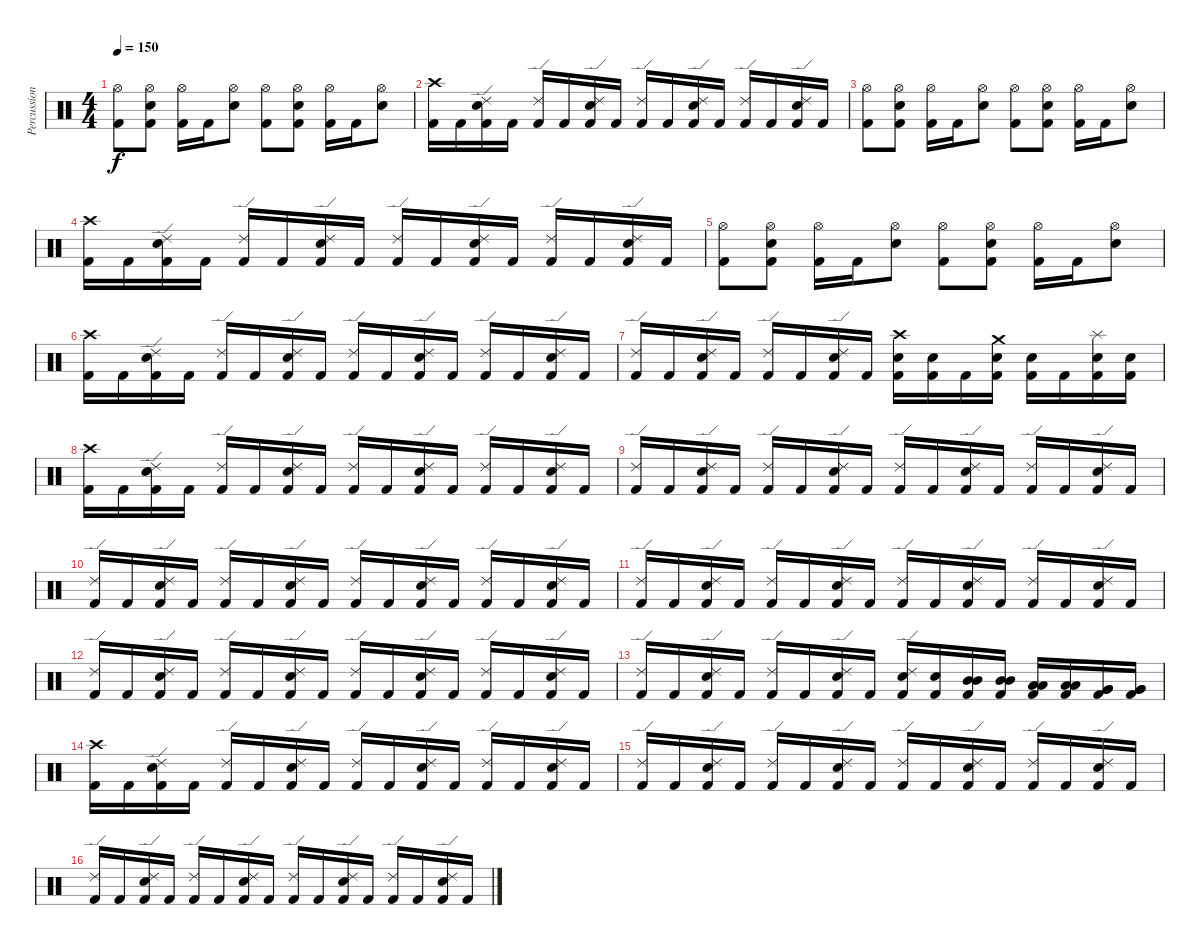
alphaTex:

\track ("Percussion" "Percussion") {instrument percussion}
\staff {score}
\articulation defaults
\ts (4 4)
\tempo 150
\clef neutral
\ks c
("Kick (hit) 2" "Hi-Hat (open)").8{dy f} ("Kick (hit) 2" "Snare (hit) 2" "Hi-Hat (open)").8 ("Kick (hit) 2" "Hi-Hat (open)").16 "Kick (hit) 2".16 ("Snare (hit) 2" "Hi-Hat (open)").8 ("Kick (hit) 2" "Hi-Hat (open)").8 ("Kick (hit) 2" "Snare (hit) 2" "Hi-Hat (open)").8 ("Kick (hit) 2" "Hi-Hat (open)").16 "Kick (hit) 2".16 ("Snare (hit) 2" "Hi-Hat (open)").8 |
("Kick (hit) 2" "Crash high (hit)").16 "Kick (hit) 2".16 ("Kick (hit) 2" "Snare (hit) 2" "Ride (edge) 2").16 "Kick (hit) 2".16 ("Kick (hit) 2" "Ride (edge) 2").16 "Kick (hit) 2".16 ("Kick (hit) 2" "Snare (hit) 2" "Ride (edge) 2").16 "Kick (hit) 2".16 ("Kick (hit) 2" "Ride (edge) 2").16 "Kick (hit) 2".16 ("Kick (hit) 2" "Snare (hit) 2" "Ride (edge) 2").16 "Kick (hit) 2".16 ("Kick (hit) 2" "Ride (edge) 2").16 "Kick (hit) 2".16 ("Kick (hit) 2" "Snare (hit) 2" "Ride (edge) 2").16 "Kick (hit) 2".16 |
("Kick (hit) 2" "Hi-Hat (open)").8 ("Kick (hit) 2" "Snare (hit) 2" "Hi-Hat (open)").8 ("Kick (hit) 2" "Hi-Hat (open)").16 "Kick (hit) 2".16 ("Snare (hit) 2" "Hi-Hat (open)").8 ("Kick (hit) 2" "Hi-Hat (open)").8 ("Kick (hit) 2" "Snare (hit) 2" "Hi-Hat (open)").8 ("Kick (hit) 2" "Hi-Hat (open)").16 "Kick (hit) 2".16 ("Snare (hit) 2" "Hi-Hat (open)").8 |
("Kick (hit) 2" "Crash high (hit)").16 "Kick (hit) 2".16 ("Kick (hit) 2" "Snare (hit) 2" "Ride (edge) 2").16 "Kick (hit) 2".16 ("Kick (hit) 2" "Ride (edge) 2").16 "Kick (hit) 2".16 ("Kick (hit) 2" "Snare (hit) 2" "Ride (edge) 2").16 "Kick (hit) 2".16 ("Kick (hit) 2" "Ride (edge) 2").16 "Kick (hit) 2".16 ("Kick (hit) 2" "Snare (hit) 2" "Ride (edge) 2").16 "Kick (hit) 2".16 ("Kick (hit) 2" "Ride (edge) 2").16 "Kick (hit) 2".16 ("Kick (hit) 2" "Snare (hit) 2" "Ride (edge) 2").16 "Kick (hit) 2".16 |
("Kick (hit) 2" "Hi-Hat (open)").8 ("Kick (hit) 2" "Snare (hit) 2" "Hi-Hat (open)").8 ("Kick (hit) 2" "Hi-Hat (open)").16 "Kick (hit) 2".16 ("Snare (hit) 2" "Hi-Hat (open)").8 ("Kick (hit) 2" "Hi-Hat (open)").8 ("Kick (hit) 2" "Snare (hit) 2" "Hi-Hat (open)").8 ("Kick (hit) 2" "Hi-Hat (open)").16 "Kick (hit) 2".16 ("Snare (hit) 2" "Hi-Hat (open)").8 |
("Kick (hit) 2" "Crash high (hit)").16 "Kick (hit) 2".16 ("Kick (hit) 2" "Snare (hit) 2" "Ride (edge) 2").16 "Kick (hit) 2".16 ("Kick (hit) 2" "Ride (edge) 2").16 "Kick (hit) 2".16 ("Kick (hit) 2" "Snare (hit) 2" "Ride (edge) 2").16 "Kick (hit) 2".16 ("Kick (hit) 2" "Ride (edge) 2").16 "Kick (hit) 2".16 ("Kick (hit) 2" "Snare (hit) 2" "Ride (edge) 2").16 "Kick (hit) 2".16 ("Kick (hit) 2" "Ride (edge) 2").16 "Kick (hit) 2".16 ("Kick (hit) 2" "Snare (hit) 2" "Ride (edge) 2").16 "Kick (hit) 2".16 |
("Kick (hit) 2" "Ride (edge) 2").16 "Kick (hit) 2".16 ("Kick (hit) 2" "Snare (hit) 2" "Ride (edge) 2").16 "Kick (hit) 2".16 ("Kick (hit) 2" "Ride (edge) 2").16 "Kick (hit) 2".16 ("Kick (hit) 2" "Snare (hit) 2" "Ride (edge) 2").16 "Kick (hit) 2".16 ("Kick (hit) 2" "Snare (hit) 2" "Crash high (hit)").16 ("Kick (hit) 2" "Snare (hit) 2").16 "Kick (hit) 2".16 ("Kick (hit) 2" "Snare (hit) 2" "Crash medium (hit)").16 ("Kick (hit) 2" "Snare (hit) 2").16 "Kick (hit) 2".16 ("Kick (hit) 2" "Snare (hit) 2" "Splash (hit)").16 ("Kick (hit) 2" "Snare (hit) 2").16 |
("Kick (hit) 2" "Crash high (hit)").16 "Kick (hit) 2".16 ("Kick (hit) 2" "Snare (hit) 2" "Ride (edge) 2").16 "Kick (hit) 2".16 ("Kick (hit) 2" "Ride (edge) 2").16 "Kick (hit) 2".16 ("Kick (hit) 2" "Snare (hit) 2" "Ride (edge) 2").16 "Kick (hit) 2".16 ("Kick (hit) 2" "Ride (edge) 2").16 "Kick (hit) 2".16 ("Kick (hit) 2" "Snare (hit) 2" "Ride (edge) 2").16 "Kick (hit) 2".16 ("Kick (hit) 2" "Ride (edge) 2").16 "Kick (hit) 2".16 ("Kick (hit) 2" "Snare (hit) 2" "Ride (edge) 2").16 "Kick (hit) 2".16 |
("Kick (hit) 2" "Ride (edge) 2").16 "Kick (hit) 2".16 ("Kick (hit) 2" "Snare (hit) 2" "Ride (edge) 2").16 "Kick (hit) 2".16 ("Kick (hit) 2" "Ride (edge) 2").16 "Kick (hit) 2".16 ("Kick (hit) 2" "Snare (hit) 2" "Ride (edge) 2").16 "Kick (hit) 2".16 ("Kick (hit) 2" "Ride (edge) 2").16 "Kick (hit) 2".16 ("Kick (hit) 2" "Snare (hit) 2" "Ride (edge) 2").16 "Kick (hit) 2".16 ("Kick (hit) 2" "Ride (edge) 2").16 "Kick (hit) 2".16 ("Kick (hit) 2" "Snare (hit) 2" "Ride (edge) 2").16 "Kick (hit) 2".16 |
("Kick (hit) 2" "Ride (edge) 2").16 "Kick (hit) 2".16 ("Kick (hit) 2" "Snare (hit) 2" "Ride (edge) 2").16 "Kick (hit) 2".16 ("Kick (hit) 2" "Ride (edge) 2").16 "Kick (hit) 2".16 ("Kick (hit) 2" "Snare (hit) 2" "Ride (edge) 2").16 "Kick (hit) 2".16 ("Kick (hit) 2" "Ride (edge) 2").16 "Kick (hit) 2".16 ("Kick (hit) 2" "Snare (hit) 2" "Ride (edge) 2").16 "Kick (hit) 2".16 ("Kick (hit) 2" "Ride (edge) 2").16 "Kick (hit) 2".16 ("Kick (hit) 2" "Snare (hit) 2" "Ride (edge) 2").16 "Kick (hit) 2".16 |
("Kick (hit) 2" "Ride (edge) 2").16 "Kick (hit) 2".16 ("Kick (hit) 2" "Snare (hit) 2" "Ride (edge) 2").16 "Kick (hit) 2".16 ("Kick (hit) 2" "Ride (edge) 2").16 "Kick (hit) 2".16 ("Kick (hit) 2" "Snare (hit) 2" "Ride (edge) 2").16 "Kick (hit) 2".16 ("Kick (hit) 2" "Ride (edge) 2").16 "Kick (hit) 2".16 ("Kick (hit) 2" "Snare (hit) 2" "Ride (edge) 2").16 "Kick (hit) 2".16 ("Kick (hit) 2" "Ride (edge) 2").16 "Kick (hit) 2".16 ("Kick (hit) 2" "Snare (hit) 2" "Ride (edge) 2").16 "Kick (hit) 2".16 |
("Kick (hit) 2" "Ride (edge) 2").16 "Kick (hit) 2".16 ("Kick (hit) 2" "Snare (hit) 2" "Ride (edge) 2").16 "Kick (hit) 2".16 ("Kick (hit) 2" "Ride (edge) 2").16 "Kick (hit) 2".16 ("Kick (hit) 2" "Snare (hit) 2" "Ride (edge) 2").16 "Kick (hit) 2".16 ("Kick (hit) 2" "Ride (edge) 2").16 "Kick (hit) 2".16 ("Kick (hit) 2" "Snare (hit) 2" "Ride (edge) 2").16 "Kick (hit) 2".16 ("Kick (hit) 2" "Ride (edge) 2").16 "Kick (hit) 2".16 ("Kick (hit) 2" "Snare (hit) 2" "Ride (edge) 2").16 "Kick (hit) 2".16 |
("Kick (hit) 2" "Ride (edge) 2").16 "Kick (hit) 2".16 ("Kick (hit) 2" "Snare (hit) 2" "Ride (edge) 2").16 "Kick (hit) 2".16 ("Kick (hit) 2" "Ride (edge) 2").16 "Kick (hit) 2".16 ("Kick (hit) 2" "Snare (hit) 2" "Ride (edge) 2").16 "Kick (hit) 2".16 ("Kick (hit) 2" "Snare (hit) 2" "Ride (edge) 2").16 ("Kick (hit) 2" "Snare (hit) 2").16 ("Kick (hit) 2" "Mid Tom (hit)" "Mid Tom (hit)").16 ("Kick (hit) 2" "Mid Tom (hit)" "Mid Tom (hit)").16 ("Kick (hit) 2" "Low Tom (hit)" "Low Tom (hit)").16 ("Kick (hit) 2" "Low Tom (hit)" "Low Tom (hit)").16 ("Kick (hit) 2" "Very Low Tom (hit)" "Very Low Tom (hit)").16 ("Kick (hit) 2" "Very Low Tom (hit)" "Very Low Tom (hit)").16 |
("Kick (hit) 2" "Crash high (hit)").16 "Kick (hit) 2".16 ("Kick (hit) 2" "Snare (hit) 2" "Ride (edge) 2").16 "Kick (hit) 2".16 ("Kick (hit) 2" "Ride (edge) 2").16 "Kick (hit) 2".16 ("Kick (hit) 2" "Snare (hit) 2" "Ride (edge) 2").16 "Kick (hit) 2".16 ("Kick (hit) 2" "Ride (edge) 2").16 "Kick (hit) 2".16 ("Kick (hit) 2" "Snare (hit) 2" "Ride (edge) 2").16 "Kick (hit) 2".16 ("Kick (hit) 2" "Ride (edge) 2").16 "Kick (hit) 2".16 ("Kick (hit) 2" "Snare (hit) 2" "Ride (edge) 2").16 "Kick (hit) 2".16 |
("Kick (hit) 2" "Ride (edge) 2").16 "Kick (hit) 2".16 ("Kick (hit) 2" "Snare (hit) 2" "Ride (edge) 2").16 "Kick (hit) 2".16 ("Kick (hit) 2" "Ride (edge) 2").16 "Kick (hit) 2".16 ("Kick (hit) 2" "Snare (hit) 2" "Ride (edge) 2").16 "Kick (hit) 2".16 ("Kick (hit) 2" "Ride (edge) 2").16 "Kick (hit) 2".16 ("Kick (hit) 2" "Snare (hit) 2" "Ride (edge) 2").16 "Kick (hit) 2".16 ("Kick (hit) 2" "Ride (edge) 2").16 "Kick (hit) 2".16 ("Kick (hit) 2" "Snare (hit) 2" "Ride (edge) 2").16 "Kick (hit) 2".16 |
("Kick (hit) 2" "Ride (edge) 2").16 "Kick (hit) 2".16 ("Kick (hit) 2" "Snare (hit) 2" "Ride (edge) 2").16 "Kick (hit) 2".16 ("Kick (hit) 2" "Ride (edge) 2").16 "Kick (hit) 2".16 ("Kick (hit) 2" "Snare (hit) 2" "Ride (edge) 2").16 "Kick (hit) 2".16 ("Kick (hit) 2" "Ride (edge) 2").16 "Kick (hit) 2".16 ("Kick (hit) 2" "Snare (hit) 2" "Ride (edge) 2").16 "Kick (hit) 2".16 ("Kick (hit) 2" "Ride (edge) 2").16 "Kick (hit) 2".16 ("Kick (hit) 2" "Snare (hit) 2" "Ride (edge) 2").16 "Kick (hit) 2".16
